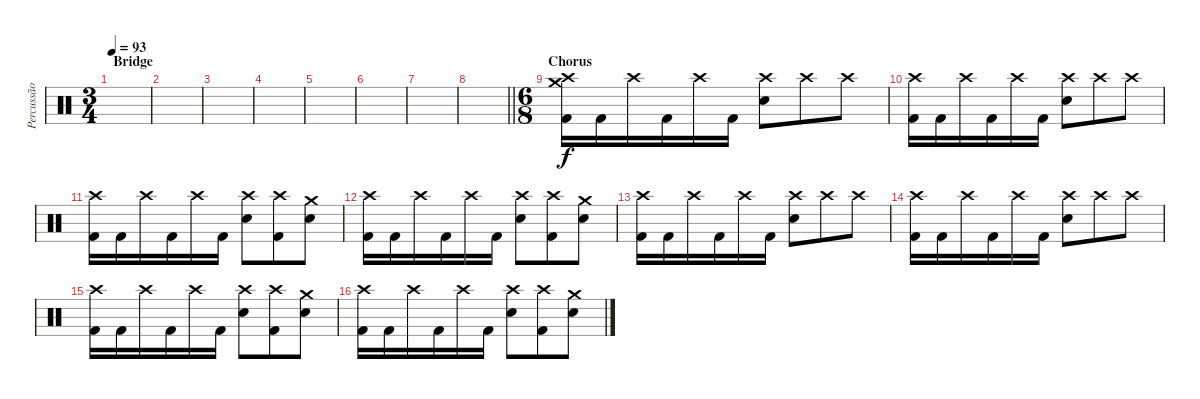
\track ("Percussão" "Percussão") {instrument percussion}
\staff {score}
\articulation defaults
\ts (3 4)
\section ("" "Bridge")
\tempo 93
\clef neutral
\ks c
|
|
|
|
|
|
|
\barLineRight lightlight
|
\ts (6 8)
\section ("" "Chorus")
("Crash high (hit)" "Crash medium (hit)" "Kick (hit) 2").16 "Kick (hit) 2".16 "Crash high (hit)".16 "Kick (hit) 2".16 "Crash high (hit)".16 "Kick (hit) 2".16 ("Crash high (hit)" "Snare (hit) 2").8 "Crash high (hit)".8 "Crash high (hit)".8 |
("Crash high (hit)" "Kick (hit) 2").16 "Kick (hit) 2".16 "Crash high (hit)".16 "Kick (hit) 2".16 "Crash high (hit)".16 "Kick (hit) 2".16 ("Crash high (hit)" "Snare (hit) 2").8 "Crash high (hit)".8 "Crash high (hit)".8 |
("Crash high (hit)" "Kick (hit) 2").16 "Kick (hit) 2".16 "Crash high (hit)".16 "Kick (hit) 2".16 "Crash high (hit)".16 "Kick (hit) 2".16 ("Crash high (hit)" "Snare (hit) 2").8 ("Crash high (hit)" "Kick (hit) 2").8 ("Crash medium (hit)" "Snare (hit) 2").8 |
("Crash high (hit)" "Kick (hit) 2").16 "Kick (hit) 2".16 "Crash high (hit)".16 "Kick (hit) 2".16 "Crash high (hit)".16 "Kick (hit) 2".16 ("Crash high (hit)" "Snare (hit) 2").8 ("Crash high (hit)" "Kick (hit) 2").8 ("Crash medium (hit)" "Snare (hit) 2").8 |
("Crash high (hit)" "Kick (hit) 2").16 "Kick (hit) 2".16 "Crash high (hit)".16 "Kick (hit) 2".16 "Crash high (hit)".16 "Kick (hit) 2".16 ("Crash high (hit)" "Snare (hit) 2").8 "Crash high (hit)".8 "Crash high (hit)".8 |
("Crash high (hit)" "Kick (hit) 2").16 "Kick (hit) 2".16 "Crash high (hit)".16 "Kick (hit) 2".16 "Crash high (hit)".16 "Kick (hit) 2".16 ("Crash high (hit)" "Snare (hit) 2").8 "Crash high (hit)".8 "Crash high (hit)".8 |
("Crash high (hit)" "Kick (hit) 2").16 "Kick (hit) 2".16 "Crash high (hit)".16 "Kick (hit) 2".16 "Crash high (hit)".16 "Kick (hit) 2".16 ("Crash high (hit)" "Snare (hit) 2").8 ("Crash high (hit)" "Kick (hit) 2").8 ("Crash medium (hit)" "Snare (hit) 2").8 |
("Crash high (hit)" "Kick (hit) 2").16 "Kick (hit) 2".16 "Crash high (hit)".16 "Kick (hit) 2".16 "Crash high (hit)".16 "Kick (hit) 2".16 ("Crash high (hit)" "Snare (hit) 2").8 ("Crash high (hit)" "Kick (hit) 2").8 ("Crash medium (hit)" "Snare (hit) 2").8
